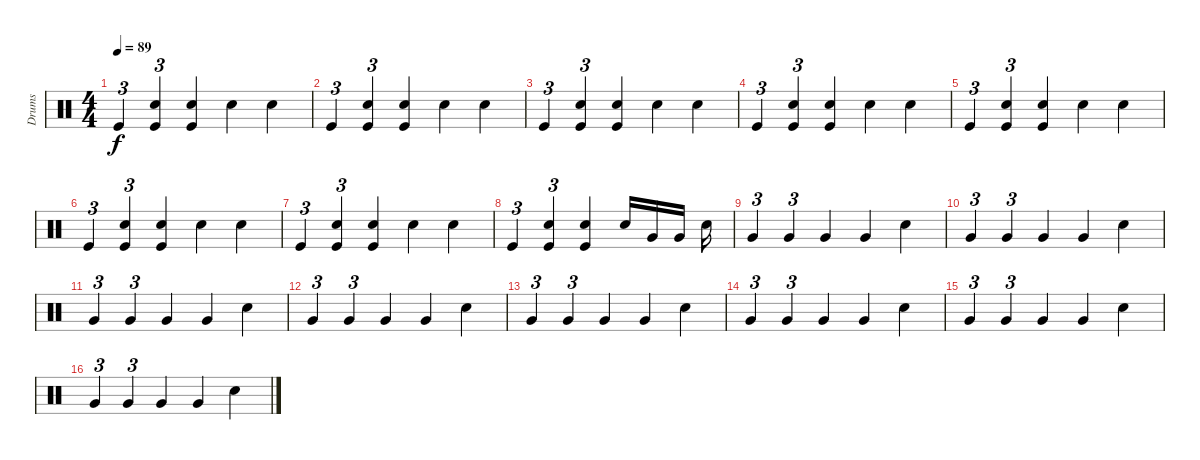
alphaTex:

\track ("Drums" "Drums") {instrument percussion}
\staff {score}
\articulation defaults
\ts (4 4)
\tempo 89
\clef neutral
\ks c "Kick (hit)".4{tu (3 2) dy f}
("Electric Snare (hit)" "Kick (hit)").4{tu (3 2)} ("Electric Snare (hit)" "Kick (hit)").4 "Electric Snare (hit)".4 "Electric Snare (hit)".4 |
"Kick (hit)".4{tu (3 2)} ("Electric Snare (hit)" "Kick (hit)").4{tu (3 2)} ("Electric Snare (hit)" "Kick (hit)").4 "Electric Snare (hit)".4 "Electric Snare (hit)".4 |
"Kick (hit)".4{tu (3 2)} ("Electric Snare (hit)" "Kick (hit)").4{tu (3 2)} ("Electric Snare (hit)" "Kick (hit)").4 "Electric Snare (hit)".4 "Electric Snare (hit)".4 |
"Kick (hit)".4{tu (3 2)} ("Electric Snare (hit)" "Kick (hit)").4{tu (3 2)} ("Electric Snare (hit)" "Kick (hit)").4 "Electric Snare (hit)".4 "Electric Snare (hit)".4 |
"Kick (hit)".4{tu (3 2)} ("Electric Snare (hit)" "Kick (hit)").4{tu (3 2)} ("Electric Snare (hit)" "Kick (hit)").4 "Electric Snare (hit)".4 "Electric Snare (hit)".4 |
"Kick (hit)".4{tu (3 2)} ("Electric Snare (hit)" "Kick (hit)").4{tu (3 2)} ("Electric Snare (hit)" "Kick (hit)").4 "Electric Snare (hit)".4 "Electric Snare (hit)".4 |
"Kick (hit)".4{tu (3 2)} ("Electric Snare (hit)" "Kick (hit)").4{tu (3 2)} ("Electric Snare (hit)" "Kick (hit)").4 "Electric Snare (hit)".4 "Electric Snare (hit)".4 |
"Kick (hit)".4{tu (3 2)} ("Electric Snare (hit)" "Kick (hit)").4{tu (3 2)} ("Electric Snare (hit)" "Kick (hit)").4 "Electric Snare (hit)".16 "Very Low Tom (hit)".16 "Very Low Tom (hit)".16 "Electric Snare (hit)".16 |
"Very Low Tom (hit)".4{tu (3 2)} "Very Low Tom (hit)".4{tu (3 2)} "Very Low Tom (hit)".4 "Very Low Tom (hit)".4 "Electric Snare (hit)".4 |
"Very Low Tom (hit)".4{tu (3 2)} "Very Low Tom (hit)".4{tu (3 2)} "Very Low Tom (hit)".4 "Very Low Tom (hit)".4 "Electric Snare (hit)".4 |
"Very Low Tom (hit)".4{tu (3 2)} "Very Low Tom (hit)".4{tu (3 2)} "Very Low Tom (hit)".4 "Very Low Tom (hit)".4 "Electric Snare (hit)".4 |
"Very Low Tom (hit)".4{tu (3 2)} "Very Low Tom (hit)".4{tu (3 2)} "Very Low Tom (hit)".4 "Very Low Tom (hit)".4 "Electric Snare (hit)".4 |
"Very Low Tom (hit)".4{tu (3 2)} "Very Low Tom (hit)".4{tu (3 2)} "Very Low Tom (hit)".4 "Very Low Tom (hit)".4 "Electric Snare (hit)".4 |
"Very Low Tom (hit)".4{tu (3 2)} "Very Low Tom (hit)".4{tu (3 2)} "Very Low Tom (hit)".4 "Very Low Tom (hit)".4 "Electric Snare (hit)".4 |
"Very Low Tom (hit)".4{tu (3 2)} "Very Low Tom (hit)".4{tu (3 2)} "Very Low Tom (hit)".4 "Very Low Tom (hit)".4 "Electric Snare (hit)".4 |
"Very Low Tom (hit)".4{tu (3 2)} "Very Low Tom (hit)".4{tu (3 2)} "Very Low Tom (hit)".4 "Very Low Tom (hit)".4 "Electric Snare (hit)".4
